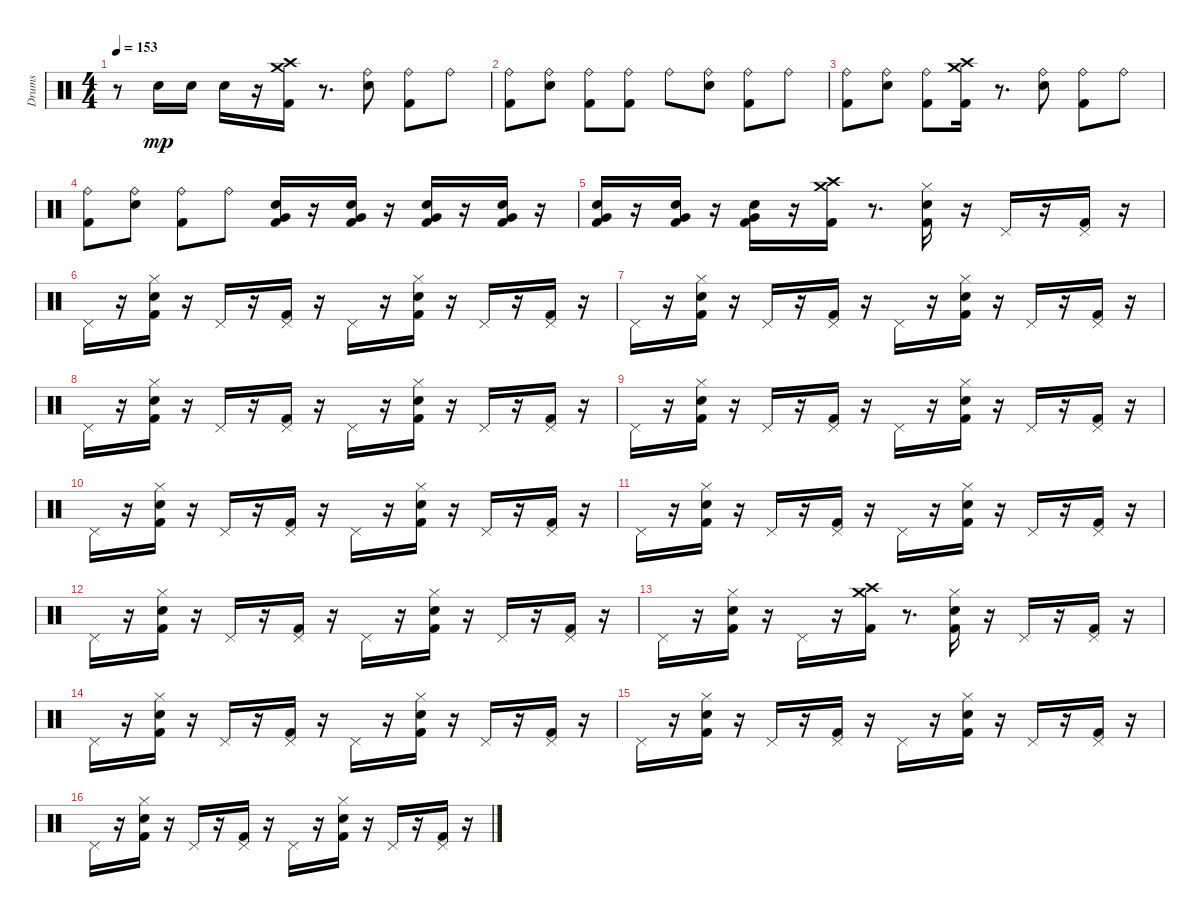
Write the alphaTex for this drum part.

\track ("Drums" "Drums") {instrument percussion}
\staff {score}
\articulation defaults
\ts (4 4)
\tempo 153
\clef neutral
\ks c
r.8{dy mp} "Electric Snare (hit)".16 "Electric Snare (hit)".16 "Electric Snare (hit)".16 r.16 ("Crash medium (hit)" "Kick (hit) 2" "Crash high (hit)").16 r.8{d} ("Electric Snare (hit)" "Ride (bell)").8 ("Kick (hit) 2" "Ride (bell)").8 "Ride (bell)".8 |
("Kick (hit) 2" "Ride (bell)").8 ("Electric Snare (hit)" "Ride (bell)").8 ("Kick (hit) 2" "Ride (bell)").8 ("Kick (hit) 2" "Ride (bell)").8 "Ride (bell)".8 ("Electric Snare (hit)" "Ride (bell)").8 ("Kick (hit) 2" "Ride (bell)").8 "Ride (bell)".8 |
("Kick (hit) 2" "Ride (bell)").8 ("Electric Snare (hit)" "Ride (bell)").8 ("Kick (hit) 2" "Ride (bell)").8 ("Crash medium (hit)" "Crash high (hit)" "Kick (hit) 2").16 r.8{d} ("Electric Snare (hit)" "Ride (bell)").8 ("Kick (hit) 2" "Ride (bell)").8 "Ride (bell)".8 |
("Kick (hit) 2" "Ride (bell)").8 ("Electric Snare (hit)" "Ride (bell)").8 ("Kick (hit) 2" "Ride (bell)").8 "Ride (bell)".8 ("Kick (hit) 2" "Very Low Tom (hit)" "Electric Snare (hit)").16 r.16 ("Kick (hit) 2" "Very Low Tom (hit)" "Electric Snare (hit)").16 r.16 ("Kick (hit) 2" "Very Low Tom (hit)" "Electric Snare (hit)").16 r.16 ("Kick (hit) 2" "Very Low Tom (hit)" "Electric Snare (hit)").16 r.16 |
("Electric Snare (hit)" "Very Low Tom (hit)" "Kick (hit) 2").16 r.16 ("Electric Snare (hit)" "Very Low Tom (hit)" "Kick (hit) 2").16 r.16 ("Kick (hit) 2" "Very Low Tom (hit)" "Electric Snare (hit)").16 r.16 ("Crash high (hit)" "Crash medium (hit)" "Kick (hit) 2").16 r.8{d} ("Hi-Hat (closed)" "Electric Snare (hit)" "Kick (hit) 2").16 r.16 "Pedal Hi-Hat (hit)".16 r.16 ("Pedal Hi-Hat (hit)" "Kick (hit) 2").16 r.16 |
"Pedal Hi-Hat (hit)".16 r.16 ("Hi-Hat (closed)" "Electric Snare (hit)" "Kick (hit) 2").16 r.16 "Pedal Hi-Hat (hit)".16 r.16 ("Pedal Hi-Hat (hit)" "Kick (hit) 2").16 r.16 "Pedal Hi-Hat (hit)".16 r.16 ("Hi-Hat (closed)" "Electric Snare (hit)" "Kick (hit) 2").16 r.16 "Pedal Hi-Hat (hit)".16 r.16 ("Pedal Hi-Hat (hit)" "Kick (hit) 2").16 r.16 |
"Pedal Hi-Hat (hit)".16 r.16 ("Hi-Hat (closed)" "Electric Snare (hit)" "Kick (hit) 2").16 r.16 "Pedal Hi-Hat (hit)".16 r.16 ("Pedal Hi-Hat (hit)" "Kick (hit) 2").16 r.16 "Pedal Hi-Hat (hit)".16 r.16 ("Hi-Hat (closed)" "Electric Snare (hit)" "Kick (hit) 2").16 r.16 "Pedal Hi-Hat (hit)".16 r.16 ("Pedal Hi-Hat (hit)" "Kick (hit) 2").16 r.16 |
"Pedal Hi-Hat (hit)".16 r.16 ("Hi-Hat (closed)" "Electric Snare (hit)" "Kick (hit) 2").16 r.16 "Pedal Hi-Hat (hit)".16 r.16 ("Pedal Hi-Hat (hit)" "Kick (hit) 2").16 r.16 "Pedal Hi-Hat (hit)".16 r.16 ("Hi-Hat (closed)" "Kick (hit) 2" "Electric Snare (hit)").16 r.16 "Pedal Hi-Hat (hit)".16 r.16 ("Pedal Hi-Hat (hit)" "Kick (hit) 2").16 r.16 |
"Pedal Hi-Hat (hit)".16 r.16 ("Hi-Hat (closed)" "Kick (hit) 2" "Electric Snare (hit)").16 r.16 "Pedal Hi-Hat (hit)".16 r.16 ("Pedal Hi-Hat (hit)" "Kick (hit) 2").16 r.16 "Pedal Hi-Hat (hit)".16 r.16 ("Hi-Hat (closed)" "Electric Snare (hit)" "Kick (hit) 2").16 r.16 "Pedal Hi-Hat (hit)".16 r.16 ("Pedal Hi-Hat (hit)" "Kick (hit) 2").16 r.16 |
"Pedal Hi-Hat (hit)".16 r.16 ("Hi-Hat (closed)" "Electric Snare (hit)" "Kick (hit) 2").16 r.16 "Pedal Hi-Hat (hit)".16 r.16 ("Pedal Hi-Hat (hit)" "Kick (hit) 2").16 r.16 "Pedal Hi-Hat (hit)".16 r.16 ("Hi-Hat (closed)" "Electric Snare (hit)" "Kick (hit) 2").16 r.16 "Pedal Hi-Hat (hit)".16 r.16 ("Pedal Hi-Hat (hit)" "Kick (hit) 2").16 r.16 |
"Pedal Hi-Hat (hit)".16 r.16 ("Hi-Hat (closed)" "Electric Snare (hit)" "Kick (hit) 2").16 r.16 "Pedal Hi-Hat (hit)".16 r.16 ("Pedal Hi-Hat (hit)" "Kick (hit) 2").16 r.16 "Pedal Hi-Hat (hit)".16 r.16 ("Hi-Hat (closed)" "Electric Snare (hit)" "Kick (hit) 2").16 r.16 "Pedal Hi-Hat (hit)".16 r.16 ("Pedal Hi-Hat (hit)" "Kick (hit) 2").16 r.16 |
"Pedal Hi-Hat (hit)".16 r.16 ("Hi-Hat (closed)" "Electric Snare (hit)" "Kick (hit) 2").16 r.16 "Pedal Hi-Hat (hit)".16 r.16 ("Pedal Hi-Hat (hit)" "Kick (hit) 2").16 r.16 "Pedal Hi-Hat (hit)".16 r.16 ("Hi-Hat (closed)" "Electric Snare (hit)" "Kick (hit) 2").16 r.16 "Pedal Hi-Hat (hit)".16 r.16 ("Kick (hit) 2" "Pedal Hi-Hat (hit)").16 r.16 |
"Pedal Hi-Hat (hit)".16 r.16 ("Hi-Hat (closed)" "Electric Snare (hit)" "Kick (hit) 2").16 r.16 "Pedal Hi-Hat (hit)".16 r.16 ("Crash high (hit)" "Crash medium (hit)" "Kick (hit) 2").16 r.8{d} ("Hi-Hat (closed)" "Electric Snare (hit)" "Kick (hit) 2").16 r.16 "Pedal Hi-Hat (hit)".16 r.16 ("Pedal Hi-Hat (hit)" "Kick (hit) 2").16 r.16 |
"Pedal Hi-Hat (hit)".16 r.16 ("Hi-Hat (closed)" "Electric Snare (hit)" "Kick (hit) 2").16 r.16 "Pedal Hi-Hat (hit)".16 r.16 ("Pedal Hi-Hat (hit)" "Kick (hit) 2").16 r.16 "Pedal Hi-Hat (hit)".16 r.16 ("Hi-Hat (closed)" "Electric Snare (hit)" "Kick (hit) 2").16 r.16 "Pedal Hi-Hat (hit)".16 r.16 ("Pedal Hi-Hat (hit)" "Kick (hit) 2").16 r.16 |
"Pedal Hi-Hat (hit)".16 r.16 ("Hi-Hat (closed)" "Electric Snare (hit)" "Kick (hit) 2").16 r.16 "Pedal Hi-Hat (hit)".16 r.16 ("Pedal Hi-Hat (hit)" "Kick (hit) 2").16 r.16 "Pedal Hi-Hat (hit)".16 r.16 ("Hi-Hat (closed)" "Electric Snare (hit)" "Kick (hit) 2").16 r.16 "Pedal Hi-Hat (hit)".16 r.16 ("Pedal Hi-Hat (hit)" "Kick (hit) 2").16 r.16 |
"Pedal Hi-Hat (hit)".16 r.16 ("Hi-Hat (closed)" "Electric Snare (hit)" "Kick (hit) 2").16 r.16 "Pedal Hi-Hat (hit)".16 r.16 ("Pedal Hi-Hat (hit)" "Kick (hit) 2").16 r.16 "Pedal Hi-Hat (hit)".16 r.16 ("Hi-Hat (closed)" "Kick (hit) 2" "Electric Snare (hit)").16 r.16 "Pedal Hi-Hat (hit)".16 r.16 ("Pedal Hi-Hat (hit)" "Kick (hit) 2").16 r.16
